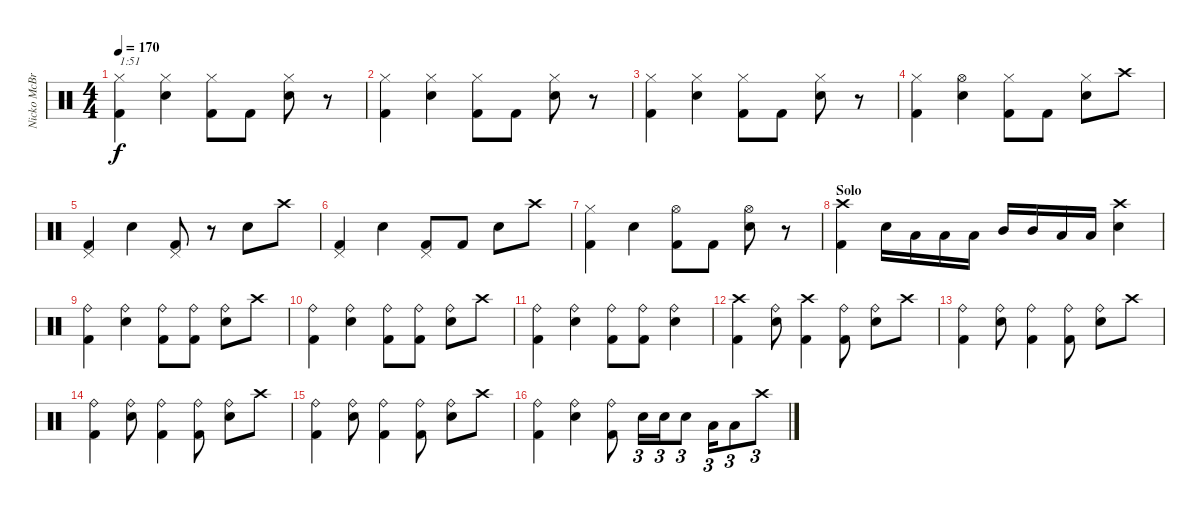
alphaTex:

\track ("Nicko McBrain" "Nicko McBr") {instrument percussion}
\staff {score}
\articulation defaults
\ts (4 4)
\tempo 170
\clef neutral
\ks c
("Hi-Hat (closed)" "Kick (hit) 2").4{txt "1:51" dy f} ("Hi-Hat (closed)" "Snare (hit) 2").4 ("Hi-Hat (closed)" "Kick (hit) 2").8 "Kick (hit) 2".8 ("Hi-Hat (closed)" "Snare (hit) 2").8 r.8 |
("Hi-Hat (closed)" "Kick (hit) 2").4 ("Hi-Hat (closed)" "Snare (hit) 2").4 ("Hi-Hat (closed)" "Kick (hit) 2").8 "Kick (hit) 2".8 ("Hi-Hat (closed)" "Snare (hit) 2").8 r.8 |
("Hi-Hat (closed)" "Kick (hit) 2").4 ("Hi-Hat (closed)" "Snare (hit) 2").4 ("Hi-Hat (closed)" "Kick (hit) 2").8 "Kick (hit) 2".8 ("Hi-Hat (closed)" "Snare (hit) 2").8 r.8 |
("Hi-Hat (closed)" "Kick (hit) 2").4 ("Hi-Hat (open)" "Snare (hit) 2").4 ("Hi-Hat (closed)" "Kick (hit) 2").8 "Kick (hit) 2".8 ("Hi-Hat (closed)" "Snare (hit) 2").8 "Crash high (hit)".8 |
("Pedal Hi-Hat (hit)" "Kick (hit) 2").4 "Snare (hit) 2".4 ("Pedal Hi-Hat (hit)" "Kick (hit) 2").8 r.8 "Snare (hit) 2".8 "Crash high (hit)".8 |
("Pedal Hi-Hat (hit)" "Kick (hit) 2").4 "Snare (hit) 2".4 ("Pedal Hi-Hat (hit)" "Kick (hit) 2").8 "Kick (hit) 2".8 "Snare (hit) 2".8 "Crash high (hit)".8 |
("Hi-Hat (closed)" "Kick (hit) 2").4 "Snare (hit) 2".4 ("Hi-Hat (open)" "Kick (hit) 2").8 "Kick (hit) 2".8 ("Hi-Hat (open)" "Snare (hit) 2").8 r.8 |
\section ("" "Solo")
("Crash high (hit)" "Kick (hit) 2").4 "Snare (hit) 2".16 "Low Tom (hit)".16 "Low Tom (hit)".16 "Low Tom (hit)".16 "Mid Tom (hit)".16 "Mid Tom (hit)".16 "Low Tom (hit)".16 "Low Tom (hit)".16 ("Crash high (hit)" "Snare (hit) 2").4 |
("Ride (bell)" "Kick (hit) 2").4 ("Ride (bell)" "Snare (hit) 2").4 ("Ride (bell)" "Kick (hit) 2").8 ("Ride (bell)" "Kick (hit) 2").8 ("Ride (bell)" "Snare (hit) 2").8 "Crash high (hit)".8 |
("Ride (bell)" "Kick (hit) 2").4 ("Ride (bell)" "Snare (hit) 2").4 ("Ride (bell)" "Kick (hit) 2").8 ("Ride (bell)" "Kick (hit) 2").8 ("Ride (bell)" "Snare (hit) 2").8 "Crash high (hit)".8 |
("Ride (bell)" "Kick (hit) 2").4 ("Ride (bell)" "Snare (hit) 2").4 ("Ride (bell)" "Kick (hit) 2").8 ("Ride (bell)" "Kick (hit) 2").8 ("Ride (bell)" "Snare (hit) 2").4 |
("Crash high (hit)" "Kick (hit) 2").4 ("Ride (bell)" "Snare (hit) 2").8 ("Crash high (hit)" "Kick (hit) 2").4 ("Ride (bell)" "Kick (hit) 2").8 ("Ride (bell)" "Snare (hit) 2").8 "Crash high (hit)".8 |
("Ride (bell)" "Kick (hit) 2").4 ("Ride (bell)" "Snare (hit) 2").8 ("Ride (bell)" "Kick (hit) 2").4 ("Ride (bell)" "Kick (hit) 2").8 ("Ride (bell)" "Snare (hit) 2").8 "Crash high (hit)".8 |
("Ride (bell)" "Kick (hit) 2").4 ("Ride (bell)" "Snare (hit) 2").8 ("Ride (bell)" "Kick (hit) 2").4 ("Ride (bell)" "Kick (hit) 2").8 ("Ride (bell)" "Snare (hit) 2").8 "Crash high (hit)".8 |
("Ride (bell)" "Kick (hit) 2").4 ("Ride (bell)" "Snare (hit) 2").8 ("Ride (bell)" "Kick (hit) 2").4 ("Ride (bell)" "Kick (hit) 2").8 ("Ride (bell)" "Snare (hit) 2").8 "Crash high (hit)".8 |
("Ride (bell)" "Kick (hit) 2").4 ("Ride (bell)" "Snare (hit) 2").4 ("Ride (bell)" "Kick (hit) 2").8 "Snare (hit) 2".16{tu (3 2)} "Snare (hit) 2".16{tu (3 2)} "Snare (hit) 2".8{tu (3 2)} "Low Tom (hit)".16{tu (3 2)} "Low Tom (hit)".8{tu (3 2)} "Crash high (hit)".8{tu (3 2)}
